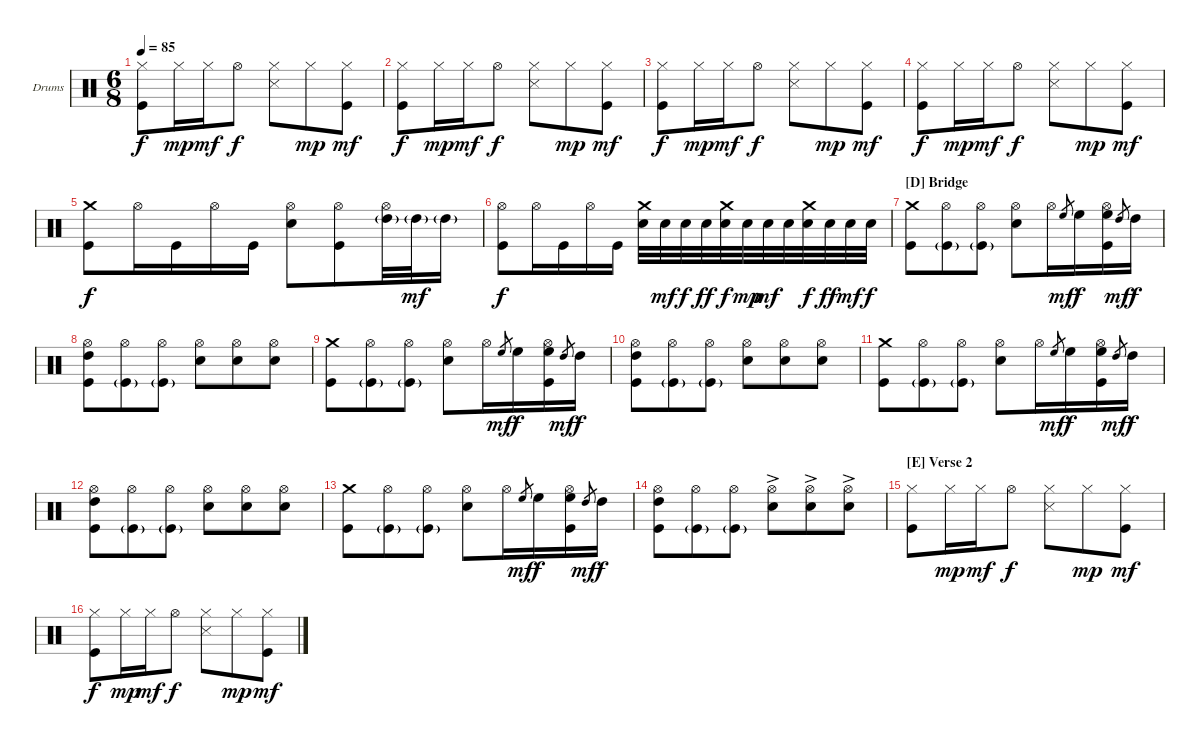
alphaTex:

\defaultSystemsLayout 4
\bracketExtendMode groupsimilarinstruments
\firstSystemTrackNameOrientation horizontal
\otherSystemsTrackNameOrientation horizontal
\track ("Drums" "Drums") {instrument percussion}
\staff {score}
\articulation defaults
\ts (6 8)
\tempo 85
\clef neutral
\ks c
("Hi-Hat (closed)" "Kick (hit)").8{dy f} "Hi-Hat (closed)".16{dy mp} "Hi-Hat (closed)".16{dy mf} "Hi-Hat (open)".8{dy f} ("Hi-Hat (closed)" "Snare (side stick) 3").8 "Hi-Hat (closed)".8{dy mp} ("Hi-Hat (closed)" "Kick (hit)").8{dy mf} |
("Hi-Hat (closed)" "Kick (hit)").8{dy f} "Hi-Hat (closed)".16{dy mp} "Hi-Hat (closed)".16{dy mf} "Hi-Hat (open)".8{dy f} ("Hi-Hat (closed)" "Snare (side stick) 3").8 "Hi-Hat (closed)".8{dy mp} ("Hi-Hat (closed)" "Kick (hit)").8{dy mf} |
("Hi-Hat (closed)" "Kick (hit)").8{dy f} "Hi-Hat (closed)".16{dy mp} "Hi-Hat (closed)".16{dy mf} "Hi-Hat (open)".8{dy f} ("Hi-Hat (closed)" "Snare (side stick) 3").8 "Hi-Hat (closed)".8{dy mp} ("Hi-Hat (closed)" "Kick (hit)").8{dy mf} |
("Hi-Hat (closed)" "Kick (hit)").8{dy f} "Hi-Hat (closed)".16{dy mp} "Hi-Hat (closed)".16{dy mf} "Hi-Hat (open)".8{dy f} ("Hi-Hat (closed)" "Snare (side stick) 3").8 "Hi-Hat (closed)".8{dy mp} ("Hi-Hat (closed)" "Kick (hit)").8{dy mf} |
("Crash medium (hit)" "Kick (hit)").8{dy f} "Hi-Hat (open)".16 "Kick (hit)".16 "Hi-Hat (open)".16 "Kick (hit)".16 ("Hi-Hat (open)" "Snare (hit) 2").8 ("Hi-Hat (open)" "Kick (hit)").8 ("Hi-Hat (open)" "High Tom (hit)"{g}).32 "High Tom (hit)"{g}.32{dy mf} "High Tom (hit)"{g}.16 |
("Hi-Hat (open)" "Kick (hit)").8{dy f} "Hi-Hat (open)".16 "Kick (hit)".16 "Hi-Hat (open)".16 "Kick (hit)".16 ("Crash medium (hit)" "Snare (hit) 2").32 "Snare (hit) 2".32{dy mf} "Snare (hit) 2".32{dy f} "Snare (hit) 2".32{dy ff} ("Crash medium (hit)" "Snare (hit) 2").32{dy f} "Snare (hit) 2".32{dy mp} "Snare (hit) 2".32{dy mf} "Snare (hit) 2".32 ("Crash medium (hit)" "Snare (hit) 2").32{dy f} "Snare (hit) 2".32{dy ff} "Snare (hit) 2".32{dy mf} "Snare (hit) 2".32{dy f} |
\section ("D" "Bridge")
("Crash medium (hit)" "Kick (hit)").8 ("Hi-Hat (open)" "Kick (hit)"{g}).8 ("Hi-Hat (open)" "Kick (hit)"{g}).8 ("Hi-Hat (open)" "Snare (hit) 2").8 "Hi-Hat (open)".16 "High Floor Tom (hit)".8{gr dy mf} "High Floor Tom (hit)".16{dy f} ("Hi-Hat (open)" "High Floor Tom (hit)" "Kick (hit)").16 "High Tom (hit)".8{gr dy mf} "High Tom (hit)".16{dy f} |
("Hi-Hat (open)" "High Tom (hit)" "Kick (hit)").8 ("Hi-Hat (open)" "Kick (hit)"{g}).8 ("Hi-Hat (open)" "Kick (hit)"{g}).8 ("Hi-Hat (open)" "Snare (hit) 2").8 ("Hi-Hat (open)" "Snare (hit) 2").8 ("Hi-Hat (open)" "Snare (hit) 2").8 |
("Crash medium (hit)" "Kick (hit)").8 ("Hi-Hat (open)" "Kick (hit)"{g}).8 ("Hi-Hat (open)" "Kick (hit)"{g}).8 ("Hi-Hat (open)" "Snare (hit) 2").8 "Hi-Hat (open)".16 "High Floor Tom (hit)".8{gr dy mf} "High Floor Tom (hit)".16{dy f} ("Hi-Hat (open)" "High Floor Tom (hit)" "Kick (hit)").16 "High Tom (hit)".8{gr dy mf} "High Tom (hit)".16{dy f} |
("Hi-Hat (open)" "High Tom (hit)" "Kick (hit)").8 ("Hi-Hat (open)" "Kick (hit)"{g}).8 ("Hi-Hat (open)" "Kick (hit)"{g}).8 ("Hi-Hat (open)" "Snare (hit) 2").8 ("Hi-Hat (open)" "Snare (hit) 2").8 ("Hi-Hat (open)" "Snare (hit) 2").8 |
("Crash medium (hit)" "Kick (hit)").8 ("Hi-Hat (open)" "Kick (hit)"{g}).8 ("Hi-Hat (open)" "Kick (hit)"{g}).8 ("Hi-Hat (open)" "Snare (hit) 2").8 "Hi-Hat (open)".16 "High Floor Tom (hit)".8{gr dy mf} "High Floor Tom (hit)".16{dy f} ("Hi-Hat (open)" "High Floor Tom (hit)" "Kick (hit)").16 "High Tom (hit)".8{gr dy mf} "High Tom (hit)".16{dy f} |
("Hi-Hat (open)" "High Tom (hit)" "Kick (hit)").8 ("Hi-Hat (open)" "Kick (hit)"{g}).8 ("Hi-Hat (open)" "Kick (hit)"{g}).8 ("Hi-Hat (open)" "Snare (hit) 2").8 ("Hi-Hat (open)" "Snare (hit) 2").8 ("Hi-Hat (open)" "Snare (hit) 2").8 |
("Crash medium (hit)" "Kick (hit)").8 ("Hi-Hat (open)" "Kick (hit)"{g}).8 ("Hi-Hat (open)" "Kick (hit)"{g}).8 ("Hi-Hat (open)" "Snare (hit) 2").8 "Hi-Hat (open)".16 "High Floor Tom (hit)".8{gr dy mf} "High Floor Tom (hit)".16{dy f} ("Hi-Hat (open)" "High Floor Tom (hit)" "Kick (hit)").16 "High Tom (hit)".8{gr dy mf} "High Tom (hit)".16{dy f} |
("Hi-Hat (open)" "High Tom (hit)" "Kick (hit)").8 ("Hi-Hat (open)" "Kick (hit)"{g}).8 ("Hi-Hat (open)" "Kick (hit)"{g}).8 ("Hi-Hat (open)"{ac} "Snare (hit) 2").8 ("Hi-Hat (open)"{ac} "Snare (hit) 2").8 ("Hi-Hat (open)"{ac} "Snare (hit) 2").8 |
\section ("E" "Verse 2")
("Hi-Hat (closed)" "Kick (hit)").8 "Hi-Hat (closed)".16{dy mp} "Hi-Hat (closed)".16{dy mf} "Hi-Hat (open)".8{dy f} ("Hi-Hat (closed)" "Snare (side stick) 3").8 "Hi-Hat (closed)".8{dy mp} ("Hi-Hat (closed)" "Kick (hit)").8{dy mf} |
("Hi-Hat (closed)" "Kick (hit)").8{dy f} "Hi-Hat (closed)".16{dy mp} "Hi-Hat (closed)".16{dy mf} "Hi-Hat (open)".8{dy f} ("Hi-Hat (closed)" "Snare (side stick) 3").8 "Hi-Hat (closed)".8{dy mp} ("Hi-Hat (closed)" "Kick (hit)").8{dy mf}
